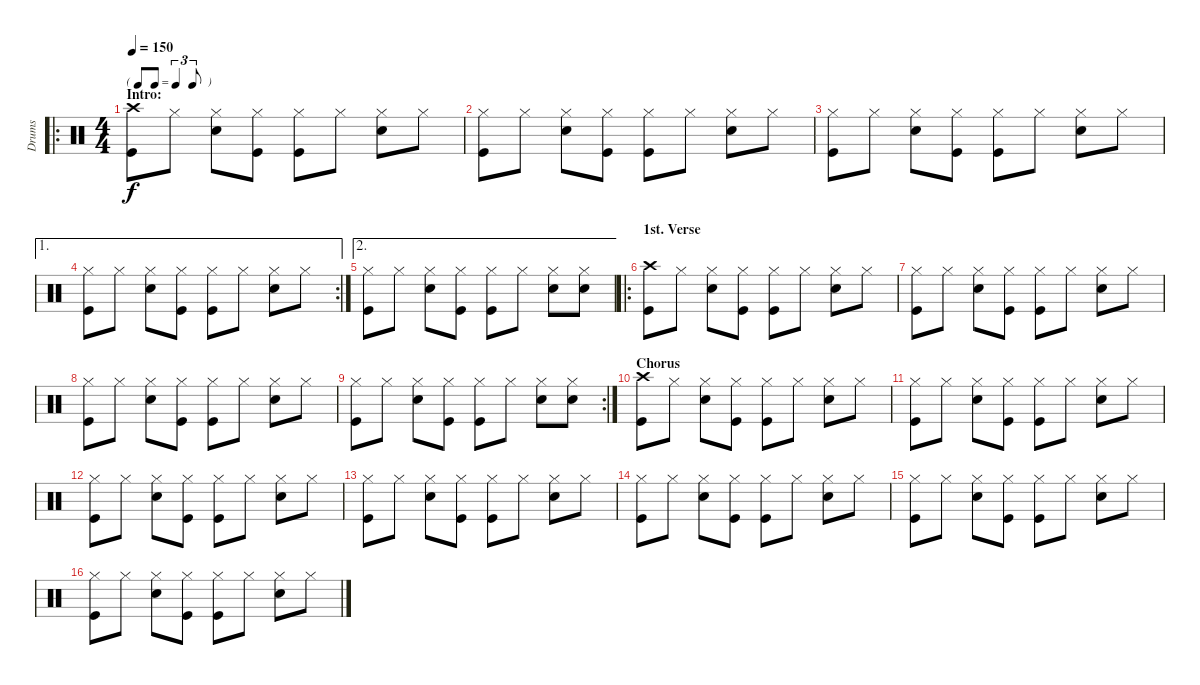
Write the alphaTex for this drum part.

\track ("Drums" "Drums") {instrument percussion}
\staff {score}
\articulation defaults
\ro
\ts (4 4)
\tf triplet8th
\section ("" "Intro:")
\tempo 150
\clef neutral
\ks c
("Crash high (hit)" "Kick (hit)").8{dy f} "Hi-Hat (closed)".8 ("Hi-Hat (closed)" "Snare (hit) 2").8 ("Hi-Hat (closed)" "Kick (hit)").8 ("Hi-Hat (closed)" "Kick (hit)").8 "Hi-Hat (closed)".8 ("Hi-Hat (closed)" "Snare (hit) 2").8 "Hi-Hat (closed)".8 |
("Hi-Hat (closed)" "Kick (hit)").8 "Hi-Hat (closed)".8 ("Hi-Hat (closed)" "Snare (hit) 2").8 ("Hi-Hat (closed)" "Kick (hit)").8 ("Hi-Hat (closed)" "Kick (hit)").8 "Hi-Hat (closed)".8 ("Hi-Hat (closed)" "Snare (hit) 2").8 "Hi-Hat (closed)".8 |
("Hi-Hat (closed)" "Kick (hit)").8 "Hi-Hat (closed)".8 ("Hi-Hat (closed)" "Snare (hit) 2").8 ("Hi-Hat (closed)" "Kick (hit)").8 ("Hi-Hat (closed)" "Kick (hit)").8 "Hi-Hat (closed)".8 ("Hi-Hat (closed)" "Snare (hit) 2").8 "Hi-Hat (closed)".8 |
\ae 1
\rc 2
("Hi-Hat (closed)" "Kick (hit)").8 "Hi-Hat (closed)".8 ("Hi-Hat (closed)" "Snare (hit) 2").8 ("Hi-Hat (closed)" "Kick (hit)").8 ("Hi-Hat (closed)" "Kick (hit)").8 "Hi-Hat (closed)".8 ("Hi-Hat (closed)" "Snare (hit) 2").8 "Hi-Hat (closed)".8 |
\ae 2
("Hi-Hat (closed)" "Kick (hit)").8 "Hi-Hat (closed)".8 ("Hi-Hat (closed)" "Snare (hit) 2").8 ("Hi-Hat (closed)" "Kick (hit)").8 ("Hi-Hat (closed)" "Kick (hit)").8 "Hi-Hat (closed)".8 ("Hi-Hat (closed)" "Snare (hit) 2").8 ("Hi-Hat (closed)" "Snare (hit) 2").8 |
\ro
\section ("" "1st. Verse")
("Crash high (hit)" "Kick (hit)").8 "Hi-Hat (closed)".8 ("Hi-Hat (closed)" "Snare (hit) 2").8 ("Hi-Hat (closed)" "Kick (hit)").8 ("Hi-Hat (closed)" "Kick (hit)").8 "Hi-Hat (closed)".8 ("Hi-Hat (closed)" "Snare (hit) 2").8 "Hi-Hat (closed)".8 |
("Hi-Hat (closed)" "Kick (hit)").8 "Hi-Hat (closed)".8 ("Hi-Hat (closed)" "Snare (hit) 2").8 ("Hi-Hat (closed)" "Kick (hit)").8 ("Hi-Hat (closed)" "Kick (hit)").8 "Hi-Hat (closed)".8 ("Hi-Hat (closed)" "Snare (hit) 2").8 "Hi-Hat (closed)".8 |
("Hi-Hat (closed)" "Kick (hit)").8 "Hi-Hat (closed)".8 ("Hi-Hat (closed)" "Snare (hit) 2").8 ("Hi-Hat (closed)" "Kick (hit)").8 ("Hi-Hat (closed)" "Kick (hit)").8 "Hi-Hat (closed)".8 ("Hi-Hat (closed)" "Snare (hit) 2").8 "Hi-Hat (closed)".8 |
\rc 2
("Hi-Hat (closed)" "Kick (hit)").8 "Hi-Hat (closed)".8 ("Hi-Hat (closed)" "Snare (hit) 2").8 ("Hi-Hat (closed)" "Kick (hit)").8 ("Hi-Hat (closed)" "Kick (hit)").8 "Hi-Hat (closed)".8 ("Hi-Hat (closed)" "Snare (hit) 2").8 ("Hi-Hat (closed)" "Snare (hit) 2").8 |
\section ("" "Chorus")
("Crash high (hit)" "Kick (hit)").8 "Hi-Hat (closed)".8 ("Hi-Hat (closed)" "Snare (hit) 2").8 ("Hi-Hat (closed)" "Kick (hit)").8 ("Hi-Hat (closed)" "Kick (hit)").8 "Hi-Hat (closed)".8 ("Hi-Hat (closed)" "Snare (hit) 2").8 "Hi-Hat (closed)".8 |
("Hi-Hat (closed)" "Kick (hit)").8 "Hi-Hat (closed)".8 ("Hi-Hat (closed)" "Snare (hit) 2").8 ("Hi-Hat (closed)" "Kick (hit)").8 ("Hi-Hat (closed)" "Kick (hit)").8 "Hi-Hat (closed)".8 ("Hi-Hat (closed)" "Snare (hit) 2").8 "Hi-Hat (closed)".8 |
("Hi-Hat (closed)" "Kick (hit)").8 "Hi-Hat (closed)".8 ("Hi-Hat (closed)" "Snare (hit) 2").8 ("Hi-Hat (closed)" "Kick (hit)").8 ("Hi-Hat (closed)" "Kick (hit)").8 "Hi-Hat (closed)".8 ("Hi-Hat (closed)" "Snare (hit) 2").8 "Hi-Hat (closed)".8 |
("Hi-Hat (closed)" "Kick (hit)").8 "Hi-Hat (closed)".8 ("Hi-Hat (closed)" "Snare (hit) 2").8 ("Hi-Hat (closed)" "Kick (hit)").8 ("Hi-Hat (closed)" "Kick (hit)").8 "Hi-Hat (closed)".8 ("Hi-Hat (closed)" "Snare (hit) 2").8 "Hi-Hat (closed)".8 |
("Hi-Hat (closed)" "Kick (hit)").8 "Hi-Hat (closed)".8 ("Hi-Hat (closed)" "Snare (hit) 2").8 ("Hi-Hat (closed)" "Kick (hit)").8 ("Hi-Hat (closed)" "Kick (hit)").8 "Hi-Hat (closed)".8 ("Hi-Hat (closed)" "Snare (hit) 2").8 "Hi-Hat (closed)".8 |
("Hi-Hat (closed)" "Kick (hit)").8 "Hi-Hat (closed)".8 ("Hi-Hat (closed)" "Snare (hit) 2").8 ("Hi-Hat (closed)" "Kick (hit)").8 ("Hi-Hat (closed)" "Kick (hit)").8 "Hi-Hat (closed)".8 ("Hi-Hat (closed)" "Snare (hit) 2").8 "Hi-Hat (closed)".8 |
("Hi-Hat (closed)" "Kick (hit)").8 "Hi-Hat (closed)".8 ("Hi-Hat (closed)" "Snare (hit) 2").8 ("Hi-Hat (closed)" "Kick (hit)").8 ("Hi-Hat (closed)" "Kick (hit)").8 "Hi-Hat (closed)".8 ("Hi-Hat (closed)" "Snare (hit) 2").8 "Hi-Hat (closed)".8
